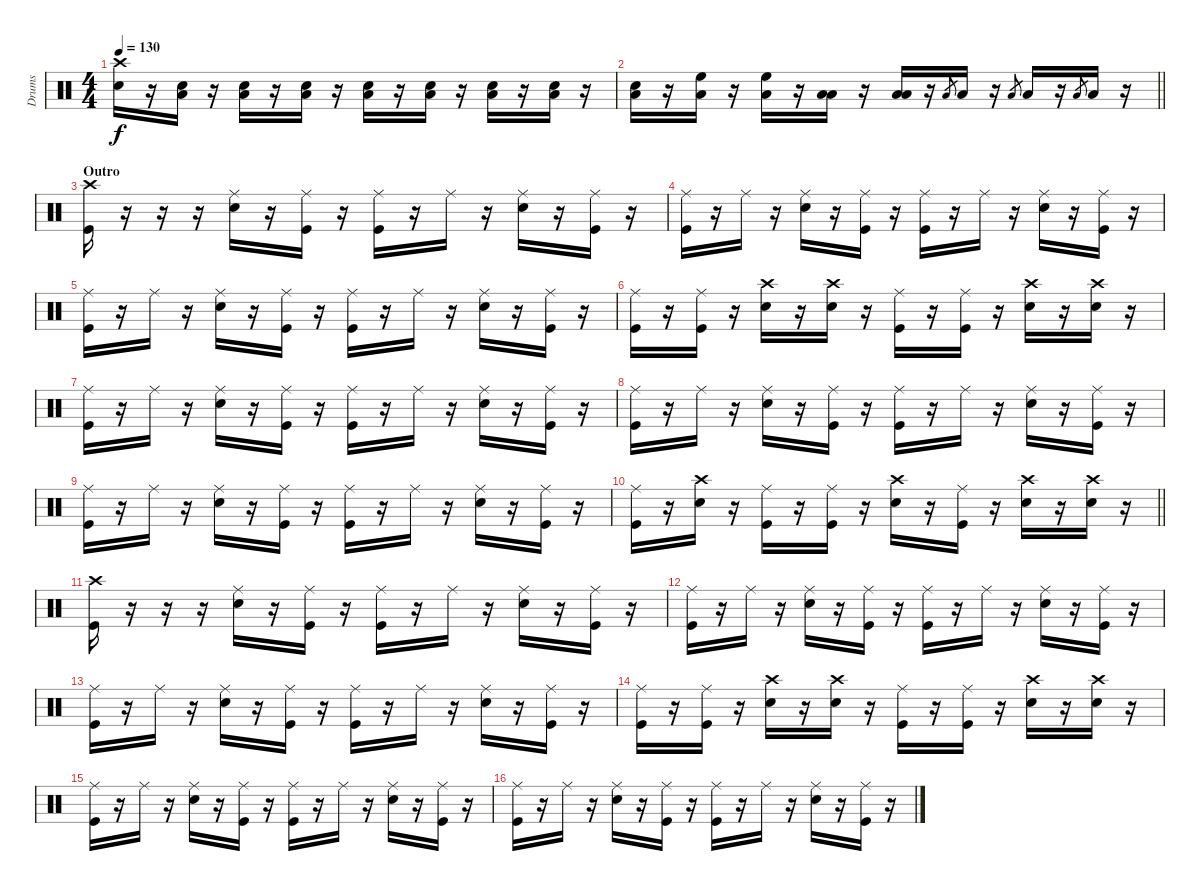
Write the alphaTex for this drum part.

\track ("Drums" "Drums") {instrument percussion}
\staff {score}
\articulation defaults
\ts (4 4)
\tempo 130
\clef neutral
\ks c
("Snare (hit) 2" "Crash high (hit)").16{dy f} r.16 ("Snare (hit) 2" "Low Floor Tom (hit)").16 r.16 ("Snare (hit) 2" "Low Floor Tom (hit)").16 r.16 ("Snare (hit) 2" "Low Floor Tom (hit)").16 r.16 ("Snare (hit) 2" "Low Floor Tom (hit)").16 r.16 ("Snare (hit) 2" "Low Floor Tom (hit)").16 r.16 ("Snare (hit) 2" "Low Floor Tom (hit)").16 r.16 ("Snare (hit) 2" "Low Floor Tom (hit)").16 r.16 |
\barLineRight lightlight
("Snare (hit) 2" "Low Floor Tom (hit)").16 r.16 ("High Floor Tom (hit)" "Low Floor Tom (hit)").16 r.16 ("High Floor Tom (hit)" "Low Floor Tom (hit)").16 r.16 ("Low Tom (hit)" "Low Floor Tom (hit)").16 r.16 ("Low Tom (hit)" "Low Floor Tom (hit)").16 r.16 "Low Floor Tom (hit)".8{gr} "Low Floor Tom (hit)".16 r.16 "Low Floor Tom (hit)".8{gr} "Low Floor Tom (hit)".16 r.16 "Low Floor Tom (hit)".8{gr} "Low Floor Tom (hit)".16 r.16 |
\section ("" "Outro")
("Kick (hit)" "Crash high (hit)").16 r.16 r.16 r.16 ("Snare (hit) 2" "Ride (middle)").16 r.16 ("Kick (hit)" "Ride (middle)").16 r.16 ("Kick (hit)" "Ride (middle)").16 r.16 "Ride (middle)".16 r.16 ("Snare (hit) 2" "Ride (middle)").16 r.16 ("Kick (hit)" "Ride (middle)").16 r.16 |
("Kick (hit)" "Ride (middle)").16 r.16 "Ride (middle)".16 r.16 ("Snare (hit) 2" "Ride (middle)").16 r.16 ("Kick (hit)" "Ride (middle)").16 r.16 ("Kick (hit)" "Ride (middle)").16 r.16 "Ride (middle)".16 r.16 ("Snare (hit) 2" "Ride (middle)").16 r.16 ("Kick (hit)" "Ride (middle)").16 r.16 |
("Kick (hit)" "Ride (middle)").16 r.16 "Ride (middle)".16 r.16 ("Snare (hit) 2" "Ride (middle)").16 r.16 ("Kick (hit)" "Ride (middle)").16 r.16 ("Kick (hit)" "Ride (middle)").16 r.16 "Ride (middle)".16 r.16 ("Snare (hit) 2" "Ride (middle)").16 r.16 ("Kick (hit)" "Ride (middle)").16 r.16 |
("Kick (hit)" "Ride (middle)").16 r.16 ("Kick (hit)" "Ride (middle)").16 r.16 ("Snare (hit) 2" "Crash high (hit)").16 r.16 ("Snare (hit) 2" "Crash high (hit)").16 r.16 ("Kick (hit)" "Ride (middle)").16 r.16 ("Kick (hit)" "Ride (middle)").16 r.16 ("Snare (hit) 2" "Crash high (hit)").16 r.16 ("Snare (hit) 2" "Crash high (hit)").16 r.16 |
("Kick (hit)" "Ride (middle)").16 r.16 "Ride (middle)".16 r.16 ("Snare (hit) 2" "Ride (middle)").16 r.16 ("Kick (hit)" "Ride (middle)").16 r.16 ("Kick (hit)" "Ride (middle)").16 r.16 "Ride (middle)".16 r.16 ("Snare (hit) 2" "Ride (middle)").16 r.16 ("Kick (hit)" "Ride (middle)").16 r.16 |
("Kick (hit)" "Ride (middle)").16 r.16 "Ride (middle)".16 r.16 ("Snare (hit) 2" "Ride (middle)").16 r.16 ("Kick (hit)" "Ride (middle)").16 r.16 ("Kick (hit)" "Ride (middle)").16 r.16 "Ride (middle)".16 r.16 ("Snare (hit) 2" "Ride (middle)").16 r.16 ("Kick (hit)" "Ride (middle)").16 r.16 |
("Kick (hit)" "Ride (middle)").16 r.16 "Ride (middle)".16 r.16 ("Snare (hit) 2" "Ride (middle)").16 r.16 ("Kick (hit)" "Ride (middle)").16 r.16 ("Kick (hit)" "Ride (middle)").16 r.16 "Ride (middle)".16 r.16 ("Snare (hit) 2" "Ride (middle)").16 r.16 ("Kick (hit)" "Ride (middle)").16 r.16 |
\barLineRight lightlight
("Kick (hit)" "Ride (middle)").16 r.16 ("Snare (hit) 2" "Crash high (hit)").16 r.16 ("Kick (hit)" "Ride (middle)").16 r.16 ("Kick (hit)" "Ride (middle)").16 r.16 ("Snare (hit) 2" "Crash high (hit)").16 r.16 ("Kick (hit)" "Ride (middle)").16 r.16 ("Snare (hit) 2" "Crash high (hit)").16 r.16 ("Snare (hit) 2" "Crash high (hit)").16 r.16 |
\section ("" "")
("Kick (hit)" "Crash high (hit)").16 r.16 r.16 r.16 ("Snare (hit) 2" "Ride (middle)").16 r.16 ("Kick (hit)" "Ride (middle)").16 r.16 ("Kick (hit)" "Ride (middle)").16 r.16 "Ride (middle)".16 r.16 ("Snare (hit) 2" "Ride (middle)").16 r.16 ("Kick (hit)" "Ride (middle)").16 r.16 |
("Kick (hit)" "Ride (middle)").16 r.16 "Ride (middle)".16 r.16 ("Snare (hit) 2" "Ride (middle)").16 r.16 ("Kick (hit)" "Ride (middle)").16 r.16 ("Kick (hit)" "Ride (middle)").16 r.16 "Ride (middle)".16 r.16 ("Snare (hit) 2" "Ride (middle)").16 r.16 ("Kick (hit)" "Ride (middle)").16 r.16 |
("Kick (hit)" "Ride (middle)").16 r.16 "Ride (middle)".16 r.16 ("Snare (hit) 2" "Ride (middle)").16 r.16 ("Kick (hit)" "Ride (middle)").16 r.16 ("Kick (hit)" "Ride (middle)").16 r.16 "Ride (middle)".16 r.16 ("Snare (hit) 2" "Ride (middle)").16 r.16 ("Kick (hit)" "Ride (middle)").16 r.16 |
("Kick (hit)" "Ride (middle)").16 r.16 ("Kick (hit)" "Ride (middle)").16 r.16 ("Snare (hit) 2" "Crash high (hit)").16 r.16 ("Snare (hit) 2" "Crash high (hit)").16 r.16 ("Kick (hit)" "Ride (middle)").16 r.16 ("Kick (hit)" "Ride (middle)").16 r.16 ("Snare (hit) 2" "Crash high (hit)").16 r.16 ("Snare (hit) 2" "Crash high (hit)").16 r.16 |
("Kick (hit)" "Ride (middle)").16 r.16 "Ride (middle)".16 r.16 ("Snare (hit) 2" "Ride (middle)").16 r.16 ("Kick (hit)" "Ride (middle)").16 r.16 ("Kick (hit)" "Ride (middle)").16 r.16 "Ride (middle)".16 r.16 ("Snare (hit) 2" "Ride (middle)").16 r.16 ("Kick (hit)" "Ride (middle)").16 r.16 |
("Kick (hit)" "Ride (middle)").16 r.16 "Ride (middle)".16 r.16 ("Snare (hit) 2" "Ride (middle)").16 r.16 ("Kick (hit)" "Ride (middle)").16 r.16 ("Kick (hit)" "Ride (middle)").16 r.16 "Ride (middle)".16 r.16 ("Snare (hit) 2" "Ride (middle)").16 r.16 ("Kick (hit)" "Ride (middle)").16 r.16
